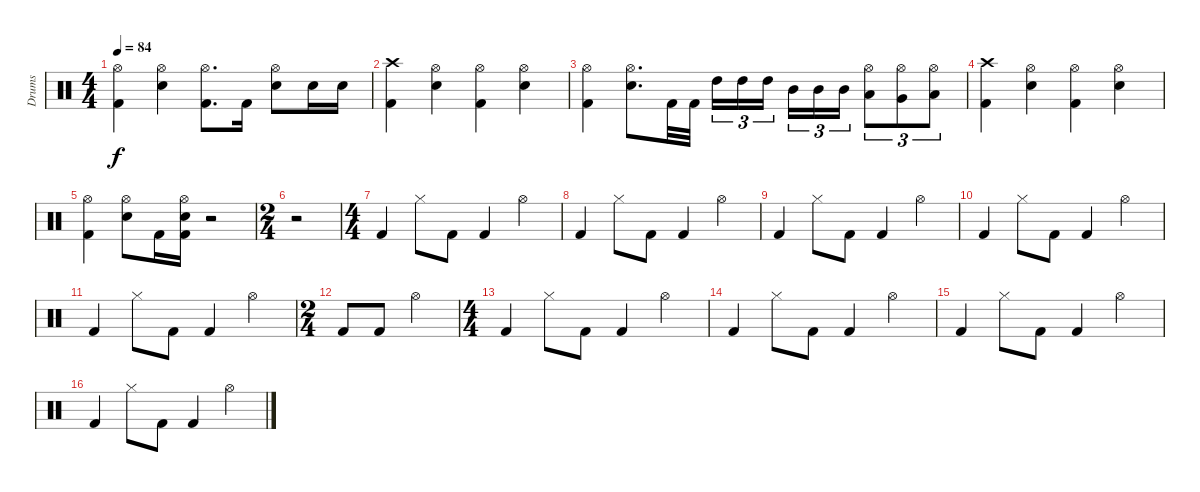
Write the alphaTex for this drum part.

\track ("Drums" "Drums") {instrument percussion}
\staff {score}
\articulation defaults
\ts (4 4)
\tempo 84
\clef neutral
\ks c
("Hi-Hat (open)" "Kick (hit) 2").4{dy f} ("Hi-Hat (open)" "Snare (hit) 2").4 ("Hi-Hat (open)" "Kick (hit) 2").8{d} "Kick (hit) 2".16 ("Hi-Hat (open)" "Snare (hit) 2").8 "Snare (hit) 2".16 "Snare (hit) 2".16 |
("Crash high (hit)" "Kick (hit) 2").4 ("Hi-Hat (open)" "Snare (hit) 2").4 ("Hi-Hat (open)" "Kick (hit) 2").4 ("Hi-Hat (open)" "Snare (hit) 2").4 |
("Hi-Hat (open)" "Kick (hit) 2").4 ("Hi-Hat (open)" "Snare (hit) 2").8{d} "Kick (hit) 2".32 "Kick (hit) 2".32 "High Tom (hit)".16{tu (3 2)} "High Tom (hit)".16{tu (3 2)} "High Tom (hit)".16{tu (3 2) beam splitsecondary} "Mid Tom (hit)".16{tu (3 2)} "Mid Tom (hit)".16{tu (3 2)} "Mid Tom (hit)".16{tu (3 2)} ("Hi-Hat (open)" "Low Tom (hit)").8{tu (3 2)} ("Hi-Hat (open)" "Very Low Tom (hit)").8{tu (3 2)} ("Hi-Hat (open)" "Low Floor Tom (hit)").8{tu (3 2)} |
("Crash high (hit)" "Kick (hit) 2").4 ("Hi-Hat (open)" "Snare (hit) 2").4 ("Hi-Hat (open)" "Kick (hit) 2").4 ("Hi-Hat (open)" "Snare (hit) 2").4 |
("Hi-Hat (open)" "Kick (hit) 2").4 ("Hi-Hat (open)" "Snare (hit) 2").8 "Kick (hit) 2".16 ("Hi-Hat (open)" "Snare (hit) 2" "Kick (hit) 2").16 r.2 |
\ts (2 4)
r.2 |
\ts (4 4)
"Kick (hit) 2".4 "Hi-Hat (closed)".8 "Kick (hit) 2".8 "Kick (hit) 2".4 "Hi-Hat (open)".4 |
"Kick (hit) 2".4 "Hi-Hat (closed)".8 "Kick (hit) 2".8 "Kick (hit) 2".4 "Hi-Hat (open)".4 |
"Kick (hit) 2".4 "Hi-Hat (closed)".8 "Kick (hit) 2".8 "Kick (hit) 2".4 "Hi-Hat (open)".4 |
"Kick (hit) 2".4 "Hi-Hat (closed)".8 "Kick (hit) 2".8 "Kick (hit) 2".4 "Hi-Hat (open)".4 |
"Kick (hit) 2".4 "Hi-Hat (closed)".8 "Kick (hit) 2".8 "Kick (hit) 2".4 "Hi-Hat (open)".4 |
\ts (2 4)
"Kick (hit) 2".8 "Kick (hit) 2".8 "Hi-Hat (open)".4 |
\ts (4 4)
"Kick (hit) 2".4 "Hi-Hat (closed)".8 "Kick (hit) 2".8 "Kick (hit) 2".4 "Hi-Hat (open)".4 |
"Kick (hit) 2".4 "Hi-Hat (closed)".8 "Kick (hit) 2".8 "Kick (hit) 2".4 "Hi-Hat (open)".4 |
"Kick (hit) 2".4 "Hi-Hat (closed)".8 "Kick (hit) 2".8 "Kick (hit) 2".4 "Hi-Hat (open)".4 |
"Kick (hit) 2".4 "Hi-Hat (closed)".8 "Kick (hit) 2".8 "Kick (hit) 2".4 "Hi-Hat (open)".4
